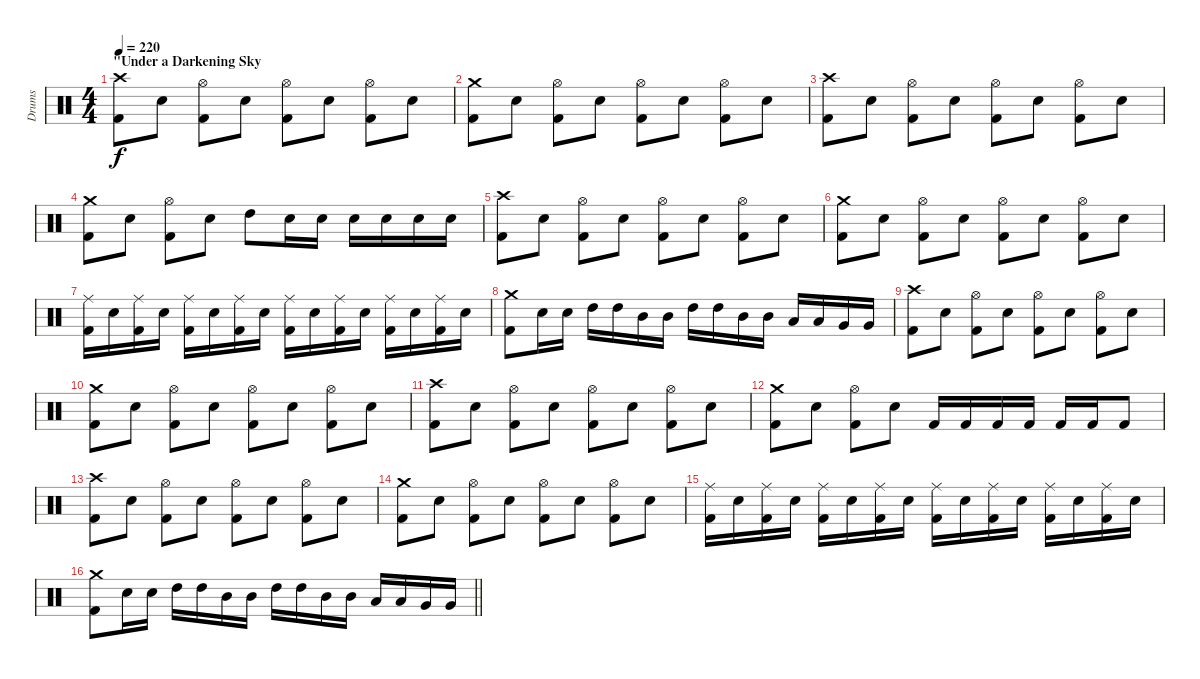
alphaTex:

\track ("Drums" "Drums") {instrument percussion}
\staff {score}
\articulation defaults
\ts (4 4)
\section ("" "\"Under a Darkening Sky")
\tempo 220
\clef neutral
\ks c
("Crash high (hit)" "Kick (hit) 2").8{dy f} "Snare (hit) 2".8 ("Hi-Hat (open)" "Kick (hit) 2").8 "Snare (hit) 2".8 ("Hi-Hat (open)" "Kick (hit) 2").8 "Snare (hit) 2".8 ("Hi-Hat (open)" "Kick (hit) 2").8 "Snare (hit) 2".8 |
("Crash medium (hit)" "Kick (hit) 2").8 "Snare (hit) 2".8 ("Hi-Hat (open)" "Kick (hit) 2").8 "Snare (hit) 2".8 ("Hi-Hat (open)" "Kick (hit) 2").8 "Snare (hit) 2".8 ("Hi-Hat (open)" "Kick (hit) 2").8 "Snare (hit) 2".8 |
("Crash high (hit)" "Kick (hit) 2").8 "Snare (hit) 2".8 ("Hi-Hat (open)" "Kick (hit) 2").8 "Snare (hit) 2".8 ("Hi-Hat (open)" "Kick (hit) 2").8 "Snare (hit) 2".8 ("Hi-Hat (open)" "Kick (hit) 2").8 "Snare (hit) 2".8 |
("Crash medium (hit)" "Kick (hit) 2").8 "Snare (hit) 2".8 ("Hi-Hat (open)" "Kick (hit) 2").8 "Snare (hit) 2".8 "High Tom (hit)".8 "Snare (hit) 2".16 "Snare (hit) 2".16 "Snare (hit) 2".16 "Snare (hit) 2".16 "Snare (hit) 2".16 "Snare (hit) 2".16 |
("Crash high (hit)" "Kick (hit) 2").8 "Snare (hit) 2".8 ("Hi-Hat (open)" "Kick (hit) 2").8 "Snare (hit) 2".8 ("Hi-Hat (open)" "Kick (hit) 2").8 "Snare (hit) 2".8 ("Hi-Hat (open)" "Kick (hit) 2").8 "Snare (hit) 2".8 |
("Crash medium (hit)" "Kick (hit) 2").8 "Snare (hit) 2".8 ("Hi-Hat (open)" "Kick (hit) 2").8 "Snare (hit) 2".8 ("Hi-Hat (open)" "Kick (hit) 2").8 "Snare (hit) 2".8 ("Hi-Hat (open)" "Kick (hit) 2").8 "Snare (hit) 2".8 |
("Ride (middle)" "Kick (hit) 2").16 "Snare (hit) 2".16 ("Ride (middle)" "Kick (hit) 2").16 "Snare (hit) 2".16 ("Ride (middle)" "Kick (hit) 2").16 "Snare (hit) 2".16 ("Ride (middle)" "Kick (hit) 2").16 "Snare (hit) 2".16 ("Ride (middle)" "Kick (hit) 2").16 "Snare (hit) 2".16 ("Ride (middle)" "Kick (hit) 2").16 "Snare (hit) 2".16 ("Ride (middle)" "Kick (hit) 2").16 "Snare (hit) 2".16 ("Ride (middle)" "Kick (hit) 2").16 "Snare (hit) 2".16 |
("Crash medium (hit)" "Kick (hit) 2").8 "Snare (hit) 2".16 "Snare (hit) 2".16 "High Tom (hit)".16 "High Tom (hit)".16 "Mid Tom (hit)".16 "Mid Tom (hit)".16 "High Tom (hit)".16 "High Tom (hit)".16 "Mid Tom (hit)".16 "Mid Tom (hit)".16 "Low Tom (hit)".16 "Low Tom (hit)".16 "Very Low Tom (hit)".16 "Very Low Tom (hit)".16 |
("Crash high (hit)" "Kick (hit) 2").8 "Snare (hit) 2".8 ("Hi-Hat (open)" "Kick (hit) 2").8 "Snare (hit) 2".8 ("Hi-Hat (open)" "Kick (hit) 2").8 "Snare (hit) 2".8 ("Hi-Hat (open)" "Kick (hit) 2").8 "Snare (hit) 2".8 |
("Crash medium (hit)" "Kick (hit) 2").8 "Snare (hit) 2".8 ("Hi-Hat (open)" "Kick (hit) 2").8 "Snare (hit) 2".8 ("Hi-Hat (open)" "Kick (hit) 2").8 "Snare (hit) 2".8 ("Hi-Hat (open)" "Kick (hit) 2").8 "Snare (hit) 2".8 |
("Crash high (hit)" "Kick (hit) 2").8 "Snare (hit) 2".8 ("Hi-Hat (open)" "Kick (hit) 2").8 "Snare (hit) 2".8 ("Hi-Hat (open)" "Kick (hit) 2").8 "Snare (hit) 2".8 ("Hi-Hat (open)" "Kick (hit) 2").8 "Snare (hit) 2".8 |
("Crash medium (hit)" "Kick (hit) 2").8 "Snare (hit) 2".8 ("Hi-Hat (open)" "Kick (hit) 2").8 "Snare (hit) 2".8 "Kick (hit) 2".16 "Kick (hit) 2".16 "Kick (hit) 2".16 "Kick (hit) 2".16 "Kick (hit) 2".16 "Kick (hit) 2".16 "Kick (hit) 2".8 |
("Crash high (hit)" "Kick (hit) 2").8 "Snare (hit) 2".8 ("Hi-Hat (open)" "Kick (hit) 2").8 "Snare (hit) 2".8 ("Hi-Hat (open)" "Kick (hit) 2").8 "Snare (hit) 2".8 ("Hi-Hat (open)" "Kick (hit) 2").8 "Snare (hit) 2".8 |
("Crash medium (hit)" "Kick (hit) 2").8 "Snare (hit) 2".8 ("Hi-Hat (open)" "Kick (hit) 2").8 "Snare (hit) 2".8 ("Hi-Hat (open)" "Kick (hit) 2").8 "Snare (hit) 2".8 ("Hi-Hat (open)" "Kick (hit) 2").8 "Snare (hit) 2".8 |
("Ride (middle)" "Kick (hit) 2").16 "Snare (hit) 2".16 ("Ride (middle)" "Kick (hit) 2").16 "Snare (hit) 2".16 ("Ride (middle)" "Kick (hit) 2").16 "Snare (hit) 2".16 ("Ride (middle)" "Kick (hit) 2").16 "Snare (hit) 2".16 ("Ride (middle)" "Kick (hit) 2").16 "Snare (hit) 2".16 ("Ride (middle)" "Kick (hit) 2").16 "Snare (hit) 2".16 ("Ride (middle)" "Kick (hit) 2").16 "Snare (hit) 2".16 ("Ride (middle)" "Kick (hit) 2").16 "Snare (hit) 2".16 |
\barLineRight lightlight
("Crash medium (hit)" "Kick (hit) 2").8 "Snare (hit) 2".16 "Snare (hit) 2".16 "High Tom (hit)".16 "High Tom (hit)".16 "Mid Tom (hit)".16 "Mid Tom (hit)".16 "High Tom (hit)".16 "High Tom (hit)".16 "Mid Tom (hit)".16 "Mid Tom (hit)".16 "Low Tom (hit)".16 "Low Tom (hit)".16 "Very Low Tom (hit)".16 "Very Low Tom (hit)".16
